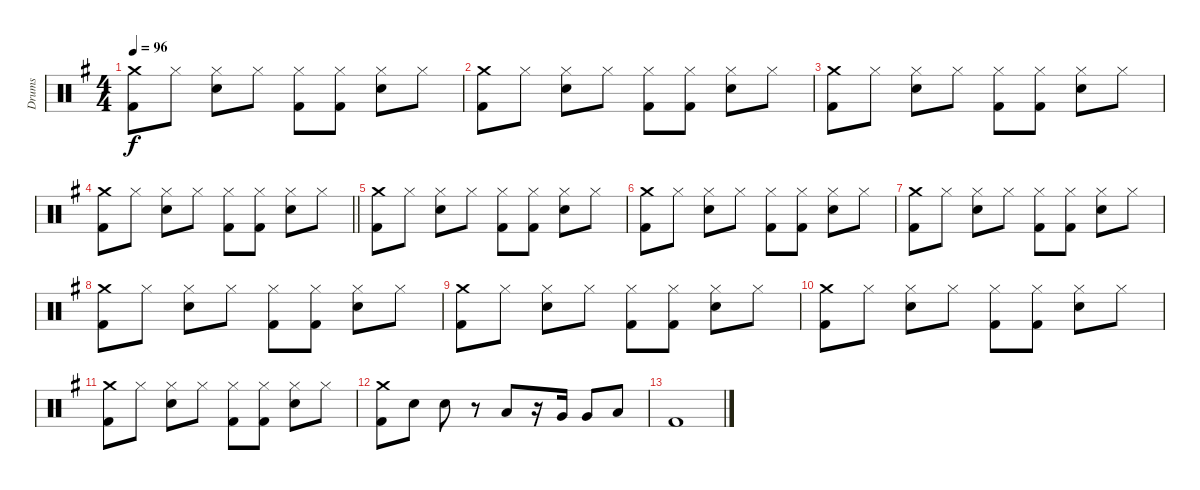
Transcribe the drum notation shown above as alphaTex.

\track ("Drums" "Drums") {instrument percussion}
\staff {score}
\articulation defaults
\ts (4 4)
\tempo 96
\clef neutral
\ks g
("Crash medium (hit)" "Kick (hit) 2").8{dy f} "Hi-Hat (closed)".8 ("Hi-Hat (closed)" "Snare (hit) 2").8 "Hi-Hat (closed)".8 ("Hi-Hat (closed)" "Kick (hit) 2").8 ("Hi-Hat (closed)" "Kick (hit) 2").8 ("Hi-Hat (closed)" "Snare (hit) 2").8 "Hi-Hat (closed)".8 |
("Crash medium (hit)" "Kick (hit) 2").8 "Hi-Hat (closed)".8 ("Hi-Hat (closed)" "Snare (hit) 2").8 "Hi-Hat (closed)".8 ("Hi-Hat (closed)" "Kick (hit) 2").8 ("Hi-Hat (closed)" "Kick (hit) 2").8 ("Hi-Hat (closed)" "Snare (hit) 2").8 "Hi-Hat (closed)".8 |
("Crash medium (hit)" "Kick (hit) 2").8 "Hi-Hat (closed)".8 ("Hi-Hat (closed)" "Snare (hit) 2").8 "Hi-Hat (closed)".8 ("Hi-Hat (closed)" "Kick (hit) 2").8 ("Hi-Hat (closed)" "Kick (hit) 2").8 ("Hi-Hat (closed)" "Snare (hit) 2").8 "Hi-Hat (closed)".8 |
\barLineRight lightlight
("Crash medium (hit)" "Kick (hit) 2").8 "Hi-Hat (closed)".8 ("Hi-Hat (closed)" "Snare (hit) 2").8 "Hi-Hat (closed)".8 ("Hi-Hat (closed)" "Kick (hit) 2").8 ("Hi-Hat (closed)" "Kick (hit) 2").8 ("Hi-Hat (closed)" "Snare (hit) 2").8 "Hi-Hat (closed)".8 |
("Crash medium (hit)" "Kick (hit) 2").8 "Hi-Hat (closed)".8 ("Hi-Hat (closed)" "Snare (hit) 2").8 "Hi-Hat (closed)".8 ("Hi-Hat (closed)" "Kick (hit) 2").8 ("Hi-Hat (closed)" "Kick (hit) 2").8 ("Hi-Hat (closed)" "Snare (hit) 2").8 "Hi-Hat (closed)".8 |
("Crash medium (hit)" "Kick (hit) 2").8 "Hi-Hat (closed)".8 ("Hi-Hat (closed)" "Snare (hit) 2").8 "Hi-Hat (closed)".8 ("Hi-Hat (closed)" "Kick (hit) 2").8 ("Hi-Hat (closed)" "Kick (hit) 2").8 ("Hi-Hat (closed)" "Snare (hit) 2").8 "Hi-Hat (closed)".8 |
("Crash medium (hit)" "Kick (hit) 2").8 "Hi-Hat (closed)".8 ("Hi-Hat (closed)" "Snare (hit) 2").8 "Hi-Hat (closed)".8 ("Hi-Hat (closed)" "Kick (hit) 2").8 ("Hi-Hat (closed)" "Kick (hit) 2").8 ("Hi-Hat (closed)" "Snare (hit) 2").8 "Hi-Hat (closed)".8 |
("Crash medium (hit)" "Kick (hit) 2").8 "Hi-Hat (closed)".8 ("Hi-Hat (closed)" "Snare (hit) 2").8 "Hi-Hat (closed)".8 ("Hi-Hat (closed)" "Kick (hit) 2").8 ("Hi-Hat (closed)" "Kick (hit) 2").8 ("Hi-Hat (closed)" "Snare (hit) 2").8 "Hi-Hat (closed)".8 |
("Crash medium (hit)" "Kick (hit) 2").8 "Hi-Hat (closed)".8 ("Hi-Hat (closed)" "Snare (hit) 2").8 "Hi-Hat (closed)".8 ("Hi-Hat (closed)" "Kick (hit) 2").8 ("Hi-Hat (closed)" "Kick (hit) 2").8 ("Hi-Hat (closed)" "Snare (hit) 2").8 "Hi-Hat (closed)".8 |
("Crash medium (hit)" "Kick (hit) 2").8 "Hi-Hat (closed)".8 ("Hi-Hat (closed)" "Snare (hit) 2").8 "Hi-Hat (closed)".8 ("Hi-Hat (closed)" "Kick (hit) 2").8 ("Hi-Hat (closed)" "Kick (hit) 2").8 ("Hi-Hat (closed)" "Snare (hit) 2").8 "Hi-Hat (closed)".8 |
("Crash medium (hit)" "Kick (hit) 2").8 "Hi-Hat (closed)".8 ("Hi-Hat (closed)" "Snare (hit) 2").8 "Hi-Hat (closed)".8 ("Hi-Hat (closed)" "Kick (hit) 2").8 ("Hi-Hat (closed)" "Kick (hit) 2").8 ("Hi-Hat (closed)" "Snare (hit) 2").8 "Hi-Hat (closed)".8 |
("Crash medium (hit)" "Kick (hit) 2").8 "Snare (hit) 2".8 "Snare (hit) 2".8 r.8 "Low Tom (hit)".8 r.16 "Very Low Tom (hit)".16 "Very Low Tom (hit)".8 "Low Tom (hit)".8 |
"Kick (hit) 2".1
